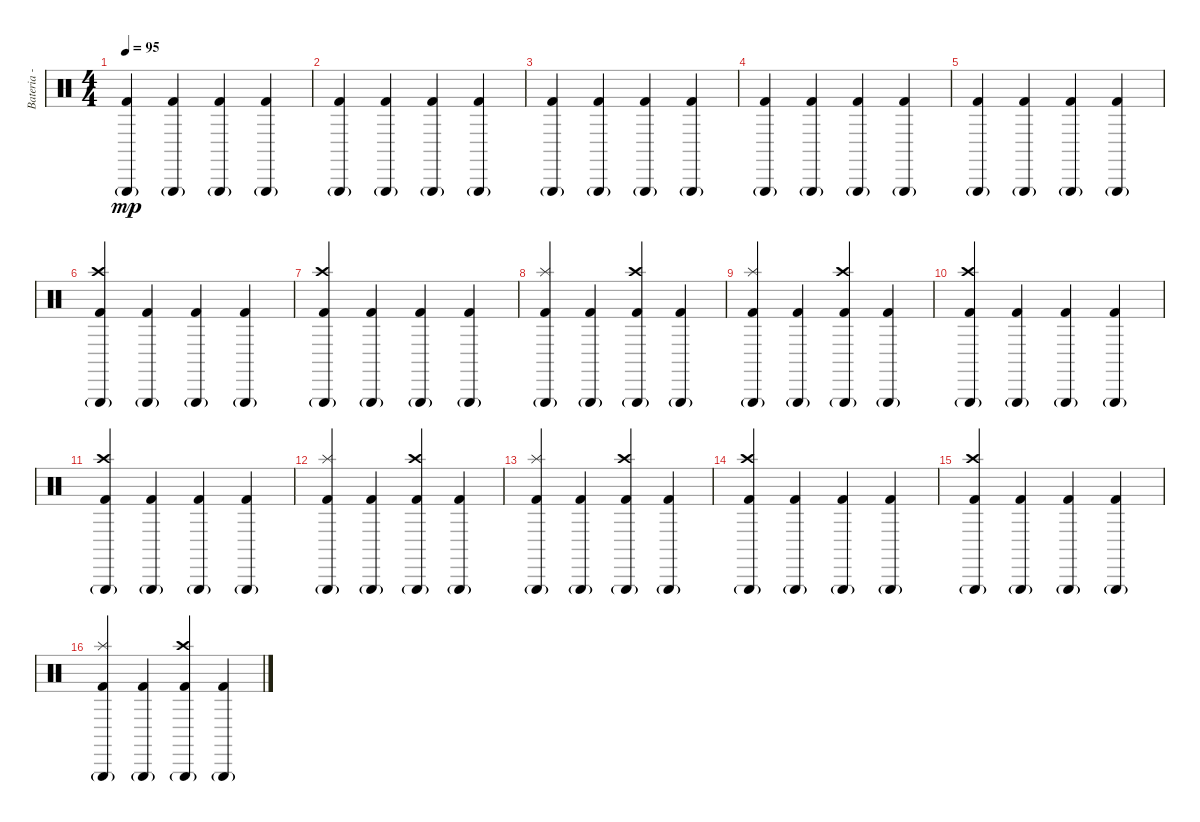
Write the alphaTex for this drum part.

\track ("Bateria - Alfonso André" "Bateria - ") {instrument percussion}
\staff {score}
\articulation defaults
\ts (4 4)
\tempo 95
\clef neutral
\ks c
("Triangle (hit)"{g} "Kick (hit) 2").4{dy mp} ("Triangle (hit)"{g} "Kick (hit) 2").4 ("Triangle (hit)"{g} "Kick (hit) 2").4 ("Triangle (hit)"{g} "Kick (hit) 2").4 |
("Triangle (hit)"{g} "Kick (hit) 2").4 ("Triangle (hit)"{g} "Kick (hit) 2").4 ("Triangle (hit)"{g} "Kick (hit) 2").4 ("Triangle (hit)"{g} "Kick (hit) 2").4 |
("Triangle (hit)"{g} "Kick (hit) 2").4 ("Triangle (hit)"{g} "Kick (hit) 2").4 ("Triangle (hit)"{g} "Kick (hit) 2").4 ("Triangle (hit)"{g} "Kick (hit) 2").4 |
("Triangle (hit)"{g} "Kick (hit) 2").4 ("Triangle (hit)"{g} "Kick (hit) 2").4 ("Triangle (hit)"{g} "Kick (hit) 2").4 ("Triangle (hit)"{g} "Kick (hit) 2").4 |
("Triangle (hit)"{g} "Kick (hit) 2").4 ("Triangle (hit)"{g} "Kick (hit) 2").4 ("Triangle (hit)"{g} "Kick (hit) 2").4 ("Triangle (hit)"{g} "Kick (hit) 2").4 |
("Triangle (hit)"{g} "Kick (hit) 2" "Crash high (hit)").4 ("Triangle (hit)"{g} "Kick (hit) 2").4 ("Triangle (hit)"{g} "Kick (hit) 2").4 ("Triangle (hit)"{g} "Kick (hit) 2").4 |
("Triangle (hit)"{g} "Kick (hit) 2" "Crash high (hit)").4 ("Triangle (hit)"{g} "Kick (hit) 2").4 ("Triangle (hit)"{g} "Kick (hit) 2").4 ("Triangle (hit)"{g} "Kick (hit) 2").4 |
("Triangle (hit)"{g} "Kick (hit) 2" "Splash (hit)").4 ("Triangle (hit)"{g} "Kick (hit) 2").4 ("Triangle (hit)"{g} "Kick (hit) 2" "Crash high (hit)").4 ("Triangle (hit)"{g} "Kick (hit) 2").4 |
("Triangle (hit)"{g} "Kick (hit) 2" "Splash (hit)").4 ("Triangle (hit)"{g} "Kick (hit) 2").4 ("Triangle (hit)"{g} "Kick (hit) 2" "Crash high (hit)").4 ("Triangle (hit)"{g} "Kick (hit) 2").4 |
("Triangle (hit)"{g} "Kick (hit) 2" "Crash high (hit)").4 ("Triangle (hit)"{g} "Kick (hit) 2").4 ("Triangle (hit)"{g} "Kick (hit) 2").4 ("Triangle (hit)"{g} "Kick (hit) 2").4 |
("Triangle (hit)"{g} "Kick (hit) 2" "Crash high (hit)").4 ("Triangle (hit)"{g} "Kick (hit) 2").4 ("Triangle (hit)"{g} "Kick (hit) 2").4 ("Triangle (hit)"{g} "Kick (hit) 2").4 |
("Triangle (hit)"{g} "Kick (hit) 2" "Splash (hit)").4 ("Triangle (hit)"{g} "Kick (hit) 2").4 ("Triangle (hit)"{g} "Kick (hit) 2" "Crash high (hit)").4 ("Triangle (hit)"{g} "Kick (hit) 2").4 |
("Triangle (hit)"{g} "Kick (hit) 2" "Splash (hit)").4 ("Triangle (hit)"{g} "Kick (hit) 2").4 ("Triangle (hit)"{g} "Kick (hit) 2" "Crash high (hit)").4 ("Triangle (hit)"{g} "Kick (hit) 2").4 |
("Triangle (hit)"{g} "Kick (hit) 2" "Crash high (hit)").4 ("Triangle (hit)"{g} "Kick (hit) 2").4 ("Triangle (hit)"{g} "Kick (hit) 2").4 ("Triangle (hit)"{g} "Kick (hit) 2").4 |
("Triangle (hit)"{g} "Kick (hit) 2" "Crash high (hit)").4 ("Triangle (hit)"{g} "Kick (hit) 2").4 ("Triangle (hit)"{g} "Kick (hit) 2").4 ("Triangle (hit)"{g} "Kick (hit) 2").4 |
("Triangle (hit)"{g} "Kick (hit) 2" "Splash (hit)").4 ("Triangle (hit)"{g} "Kick (hit) 2").4 ("Triangle (hit)"{g} "Kick (hit) 2" "Crash high (hit)").4 ("Triangle (hit)"{g} "Kick (hit) 2").4
